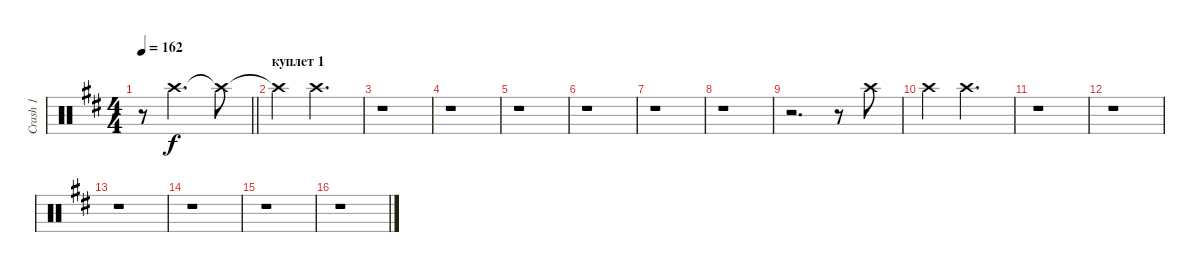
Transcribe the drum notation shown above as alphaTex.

\track ("Crash 1" "Crash 1") {instrument percussion}
\staff {score}
\articulation defaults
\ts (4 4)
\tempo 162
\clef neutral
\barLineRight lightlight
\ks bminor
r.8{dy f} "Crash high (hit)".2{d} "Crash high (hit)"{t}.8 |
\section ("" "куплет 1")
"Crash high (hit)"{t}.4 "Crash high (hit)".2{d} |
r.1 |
r.1 |
r.1 |
r.1 |
r.1 |
r.1 |
r.2{d} r.8 "Crash high (hit)".8 |
"Crash high (hit)".4 "Crash high (hit)".2{d} |
r.1 |
r.1 |
r.1 |
r.1 |
r.1 |
r.1
